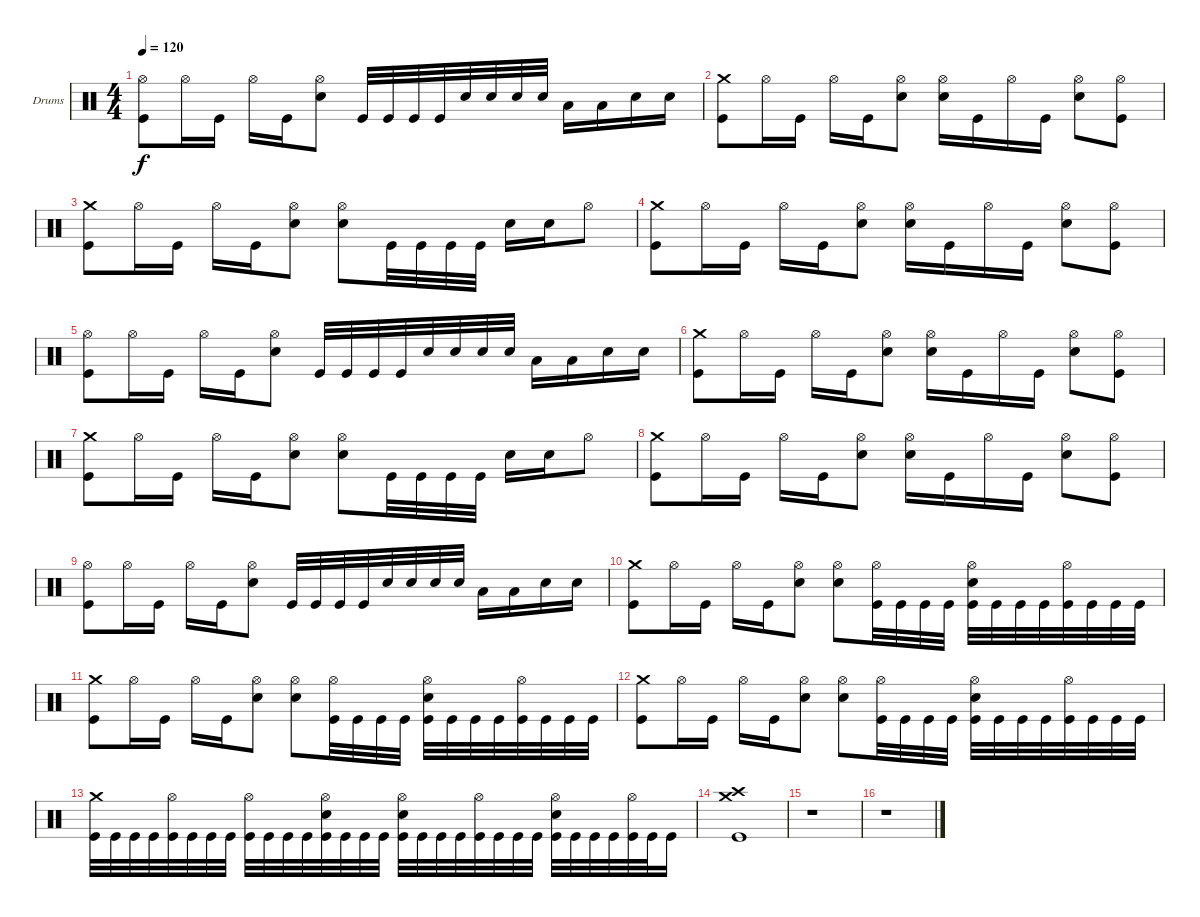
\bracketExtendMode groupsimilarinstruments
\firstSystemTrackNameOrientation horizontal
\otherSystemsTrackNameOrientation horizontal
\track ("Drumkit" "Drums") {instrument percussion}
\staff {score}
\articulation defaults
\ts (4 4)
\tempo 120
\clef neutral
\scale
0.333333
\ks c
("Hi-Hat (open)" "Kick (hit)").8{dy f} "Hi-Hat (open)".16 "Kick (hit)".16 "Hi-Hat (open)".16 "Kick (hit)".16 ("Hi-Hat (open)" "Snare (hit) 2").8 "Kick (hit)".32 "Kick (hit)".32 "Kick (hit)".32 "Kick (hit)".32 "Snare (hit) 2".32 "Snare (hit) 2".32 "Snare (hit) 2".32 "Snare (hit) 2".32 "Low Tom (hit)".16 "Low Tom (hit)".16 "Snare (hit) 2".16 "Snare (hit) 2".16 |
\scale
0.333333 ("Crash medium (hit)" "Kick (hit)").8 "Hi-Hat (open)".16 "Kick (hit)".16 "Hi-Hat (open)".16 "Kick (hit)".16 ("Hi-Hat (open)" "Snare (hit) 2").8 ("Hi-Hat (open)" "Snare (hit) 2").16 "Kick (hit)".16 "Hi-Hat (open)".16 "Kick (hit)".16 ("Hi-Hat (open)" "Snare (hit) 2").8 ("Hi-Hat (open)" "Kick (hit)").8 |
\scale
0.333333 ("Crash medium (hit)" "Kick (hit)").8 "Hi-Hat (open)".16 "Kick (hit)".16 "Hi-Hat (open)".16 "Kick (hit)".16 ("Hi-Hat (open)" "Snare (hit) 2").8 ("Hi-Hat (open)" "Snare (hit) 2").8 "Kick (hit)".32 "Kick (hit)".32 "Kick (hit)".32 "Kick (hit)".32 "Snare (hit) 2".16 "Snare (hit) 2".16 "Hi-Hat (open)".8 |
\scale
0.333333 ("Crash medium (hit)" "Kick (hit)").8 "Hi-Hat (open)".16 "Kick (hit)".16 "Hi-Hat (open)".16 "Kick (hit)".16 ("Hi-Hat (open)" "Snare (hit) 2").8 ("Hi-Hat (open)" "Snare (hit) 2").16 "Kick (hit)".16 "Hi-Hat (open)".16 "Kick (hit)".16 ("Hi-Hat (open)" "Snare (hit) 2").8 ("Hi-Hat (open)" "Kick (hit)").8 |
\scale
0.333333 ("Hi-Hat (open)" "Kick (hit)").8 "Hi-Hat (open)".16 "Kick (hit)".16 "Hi-Hat (open)".16 "Kick (hit)".16 ("Hi-Hat (open)" "Snare (hit) 2").8 "Kick (hit)".32 "Kick (hit)".32 "Kick (hit)".32 "Kick (hit)".32 "Snare (hit) 2".32 "Snare (hit) 2".32 "Snare (hit) 2".32 "Snare (hit) 2".32 "Low Tom (hit)".16 "Low Tom (hit)".16 "Snare (hit) 2".16 "Snare (hit) 2".16 |
\scale
0.333333 ("Crash medium (hit)" "Kick (hit)").8 "Hi-Hat (open)".16 "Kick (hit)".16 "Hi-Hat (open)".16 "Kick (hit)".16 ("Hi-Hat (open)" "Snare (hit) 2").8 ("Hi-Hat (open)" "Snare (hit) 2").16 "Kick (hit)".16 "Hi-Hat (open)".16 "Kick (hit)".16 ("Hi-Hat (open)" "Snare (hit) 2").8 ("Hi-Hat (open)" "Kick (hit)").8 |
\scale
0.333333 ("Crash medium (hit)" "Kick (hit)").8 "Hi-Hat (open)".16 "Kick (hit)".16 "Hi-Hat (open)".16 "Kick (hit)".16 ("Hi-Hat (open)" "Snare (hit) 2").8 ("Hi-Hat (open)" "Snare (hit) 2").8 "Kick (hit)".32 "Kick (hit)".32 "Kick (hit)".32 "Kick (hit)".32 "Snare (hit) 2".16 "Snare (hit) 2".16 "Hi-Hat (open)".8 |
\scale
0.333333 ("Crash medium (hit)" "Kick (hit)").8 "Hi-Hat (open)".16 "Kick (hit)".16 "Hi-Hat (open)".16 "Kick (hit)".16 ("Hi-Hat (open)" "Snare (hit) 2").8 ("Hi-Hat (open)" "Snare (hit) 2").16 "Kick (hit)".16 "Hi-Hat (open)".16 "Kick (hit)".16 ("Hi-Hat (open)" "Snare (hit) 2").8 ("Hi-Hat (open)" "Kick (hit)").8 |
\scale
0.333333 ("Hi-Hat (open)" "Kick (hit)").8 "Hi-Hat (open)".16 "Kick (hit)".16 "Hi-Hat (open)".16 "Kick (hit)".16 ("Hi-Hat (open)" "Snare (hit) 2").8 "Kick (hit)".32 "Kick (hit)".32 "Kick (hit)".32 "Kick (hit)".32 "Snare (hit) 2".32 "Snare (hit) 2".32 "Snare (hit) 2".32 "Snare (hit) 2".32 "Low Tom (hit)".16 "Low Tom (hit)".16 "Snare (hit) 2".16 "Snare (hit) 2".16 |
\scale
0.333333 ("Crash medium (hit)" "Kick (hit)").8 "Hi-Hat (open)".16 "Kick (hit)".16 "Hi-Hat (open)".16 "Kick (hit)".16 ("Hi-Hat (open)" "Snare (hit) 2").8 ("Hi-Hat (open)" "Snare (hit) 2").8 ("Hi-Hat (open)" "Kick (hit)").32 "Kick (hit)".32 "Kick (hit)".32 "Kick (hit)".32 ("Hi-Hat (open)" "Snare (hit) 2" "Kick (hit)").32 "Kick (hit)".32 "Kick (hit)".32 "Kick (hit)".32 ("Hi-Hat (open)" "Kick (hit)").32 "Kick (hit)".32 "Kick (hit)".32 "Kick (hit)".32 |
\scale
0.333333 ("Crash medium (hit)" "Kick (hit)").8 "Hi-Hat (open)".16 "Kick (hit)".16 "Hi-Hat (open)".16 "Kick (hit)".16 ("Hi-Hat (open)" "Snare (hit) 2").8 ("Hi-Hat (open)" "Snare (hit) 2").8 ("Hi-Hat (open)" "Kick (hit)").32 "Kick (hit)".32 "Kick (hit)".32 "Kick (hit)".32 ("Hi-Hat (open)" "Snare (hit) 2" "Kick (hit)").32 "Kick (hit)".32 "Kick (hit)".32 "Kick (hit)".32 ("Hi-Hat (open)" "Kick (hit)").32 "Kick (hit)".32 "Kick (hit)".32 "Kick (hit)".32 |
\scale
0.333333 ("Crash medium (hit)" "Kick (hit)").8 "Hi-Hat (open)".16 "Kick (hit)".16 "Hi-Hat (open)".16 "Kick (hit)".16 ("Hi-Hat (open)" "Snare (hit) 2").8 ("Hi-Hat (open)" "Snare (hit) 2").8 ("Hi-Hat (open)" "Kick (hit)").32 "Kick (hit)".32 "Kick (hit)".32 "Kick (hit)".32 ("Hi-Hat (open)" "Snare (hit) 2" "Kick (hit)").32 "Kick (hit)".32 "Kick (hit)".32 "Kick (hit)".32 ("Hi-Hat (open)" "Kick (hit)").32 "Kick (hit)".32 "Kick (hit)".32 "Kick (hit)".32 |
\scale
0.333333 ("Crash medium (hit)" "Kick (hit)").32 "Kick (hit)".32 "Kick (hit)".32 "Kick (hit)".32 ("Hi-Hat (open)" "Kick (hit)").32 "Kick (hit)".32 "Kick (hit)".32 "Kick (hit)".32 ("Hi-Hat (open)" "Kick (hit)").32 "Kick (hit)".32 "Kick (hit)".32 "Kick (hit)".32 ("Hi-Hat (open)" "Snare (hit) 2" "Kick (hit)").32 "Kick (hit)".32 "Kick (hit)".32 "Kick (hit)".32 ("Hi-Hat (open)" "Snare (hit) 2" "Kick (hit)").32 "Kick (hit)".32 "Kick (hit)".32 "Kick (hit)".32 ("Hi-Hat (open)" "Kick (hit)").32 "Kick (hit)".32 "Kick (hit)".32 "Kick (hit)".32 ("Hi-Hat (open)" "Snare (hit) 2" "Kick (hit)").32 "Kick (hit)".32 "Kick (hit)".32 "Kick (hit)".32 ("Hi-Hat (open)" "Kick (hit)").32 "Kick (hit)".32 "Kick (hit)".16 |
\scale
0.333333 ("Crash medium (hit)" "Crash high (hit)" "Kick (hit)").1 |
\scale
0.333333 r.1 |
\scale
0.333333 r.1
